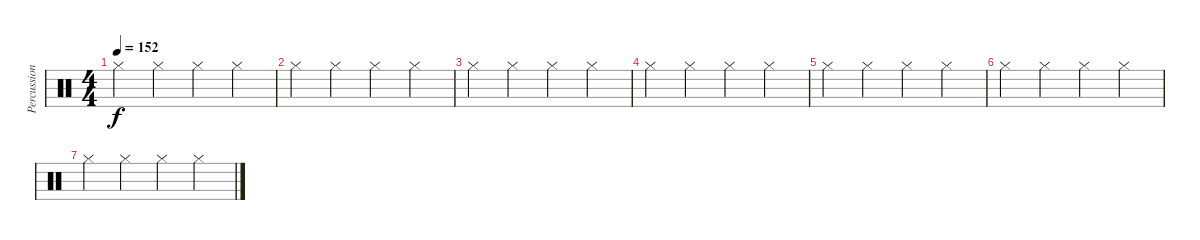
\track ("Percussion" "Percussion") {instrument percussion}
\staff {score}
\articulation defaults
\ts (4 4)
\tempo 152
\clef neutral
\ks c "Hi-Hat (closed)".4{dy f} "Hi-Hat (closed)".4 "Hi-Hat (closed)".4 "Hi-Hat (closed)".4
|
"Hi-Hat (closed)".4 "Hi-Hat (closed)".4 "Hi-Hat (closed)".4 "Hi-Hat (closed)".4 |
"Hi-Hat (closed)".4 "Hi-Hat (closed)".4 "Hi-Hat (closed)".4 "Hi-Hat (closed)".4 |
"Hi-Hat (closed)".4 "Hi-Hat (closed)".4 "Hi-Hat (closed)".4 "Hi-Hat (closed)".4 |
"Hi-Hat (closed)".4 "Hi-Hat (closed)".4 "Hi-Hat (closed)".4 "Hi-Hat (closed)".4 |
"Hi-Hat (closed)".4 "Hi-Hat (closed)".4 "Hi-Hat (closed)".4 "Hi-Hat (closed)".4 |
"Hi-Hat (closed)".4 "Hi-Hat (closed)".4 "Hi-Hat (closed)".4 "Hi-Hat (closed)".4
